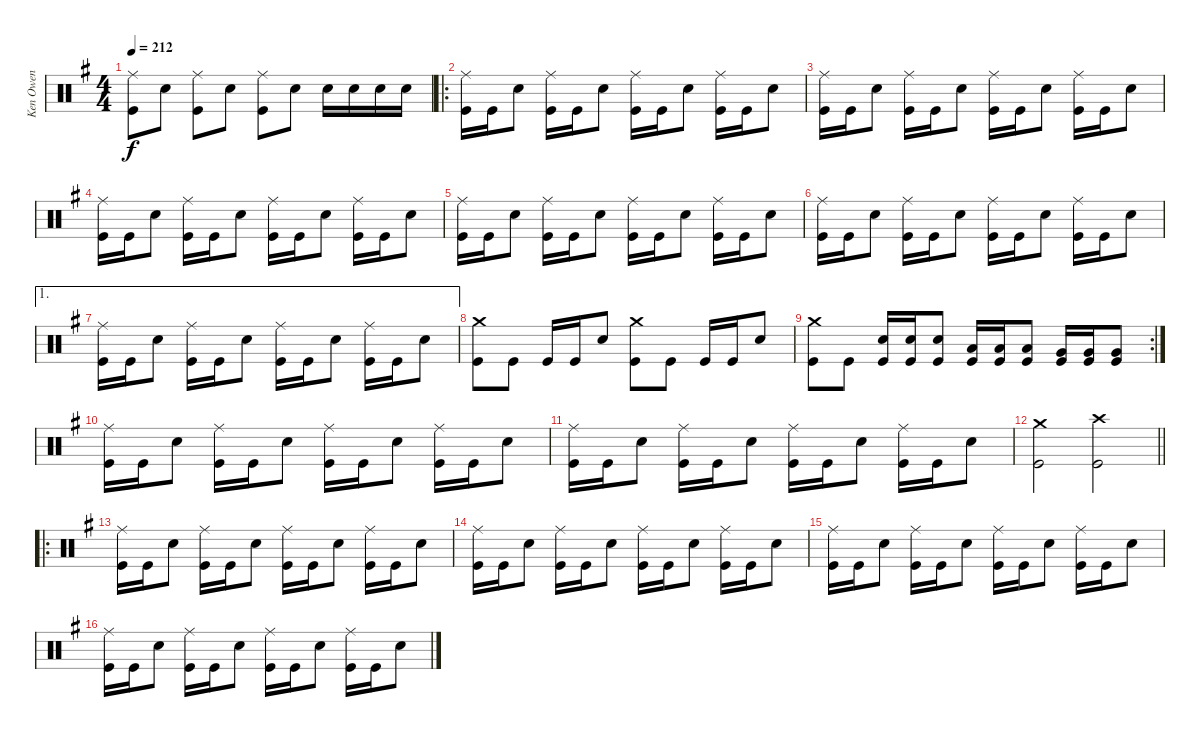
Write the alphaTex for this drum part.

\track ("Ken Owen" "Ken Owen") {instrument percussion}
\staff {score}
\articulation defaults
\ts (4 4)
\tempo 212
\clef neutral
\ks g
("Ride (middle)" "Kick (hit)").8{dy f} "Snare (hit) 2".8 ("Ride (middle)" "Kick (hit)").8 "Snare (hit) 2".8 ("Ride (middle)" "Kick (hit)").8 "Snare (hit) 2".8 "Snare (hit) 2".16 "Snare (hit) 2".16 "Snare (hit) 2".16 "Snare (hit) 2".16 |
\ro
("Ride (middle)" "Kick (hit)").16 "Kick (hit)".16 "Snare (hit) 2".8 ("Ride (middle)" "Kick (hit)").16 "Kick (hit)".16 "Snare (hit) 2".8 ("Ride (middle)" "Kick (hit)").16 "Kick (hit)".16 "Snare (hit) 2".8 ("Ride (middle)" "Kick (hit)").16 "Kick (hit)".16 "Snare (hit) 2".8 |
("Ride (middle)" "Kick (hit)").16 "Kick (hit)".16 "Snare (hit) 2".8 ("Ride (middle)" "Kick (hit)").16 "Kick (hit)".16 "Snare (hit) 2".8 ("Ride (middle)" "Kick (hit)").16 "Kick (hit)".16 "Snare (hit) 2".8 ("Ride (middle)" "Kick (hit)").16 "Kick (hit)".16 "Snare (hit) 2".8 |
("Ride (middle)" "Kick (hit)").16 "Kick (hit)".16 "Snare (hit) 2".8 ("Ride (middle)" "Kick (hit)").16 "Kick (hit)".16 "Snare (hit) 2".8 ("Ride (middle)" "Kick (hit)").16 "Kick (hit)".16 "Snare (hit) 2".8 ("Ride (middle)" "Kick (hit)").16 "Kick (hit)".16 "Snare (hit) 2".8 |
("Ride (middle)" "Kick (hit)").16 "Kick (hit)".16 "Snare (hit) 2".8 ("Ride (middle)" "Kick (hit)").16 "Kick (hit)".16 "Snare (hit) 2".8 ("Ride (middle)" "Kick (hit)").16 "Kick (hit)".16 "Snare (hit) 2".8 ("Ride (middle)" "Kick (hit)").16 "Kick (hit)".16 "Snare (hit) 2".8 |
("Ride (middle)" "Kick (hit)").16 "Kick (hit)".16 "Snare (hit) 2".8 ("Ride (middle)" "Kick (hit)").16 "Kick (hit)".16 "Snare (hit) 2".8 ("Ride (middle)" "Kick (hit)").16 "Kick (hit)".16 "Snare (hit) 2".8 ("Ride (middle)" "Kick (hit)").16 "Kick (hit)".16 "Snare (hit) 2".8 |
\ae 1
("Ride (middle)" "Kick (hit)").16 "Kick (hit)".16 "Snare (hit) 2".8 ("Ride (middle)" "Kick (hit)").16 "Kick (hit)".16 "Snare (hit) 2".8 ("Ride (middle)" "Kick (hit)").16 "Kick (hit)".16 "Snare (hit) 2".8 ("Ride (middle)" "Kick (hit)").16 "Kick (hit)".16 "Snare (hit) 2".8 |
("Crash medium (hit)" "Kick (hit)").8 "Kick (hit)".8 "Kick (hit)".16 "Kick (hit)".16 "Snare (hit) 2".8 ("Crash medium (hit)" "Kick (hit)").8 "Kick (hit)".8 "Kick (hit)".16 "Kick (hit)".16 "Snare (hit) 2".8 |
\rc 2
("Crash medium (hit)" "Kick (hit)").8 "Kick (hit)".8 ("Snare (hit) 2" "Kick (hit)").16 ("Snare (hit) 2" "Kick (hit)").16 ("Snare (hit) 2" "Kick (hit)").8 ("Low Tom (hit)" "Kick (hit)").16 ("Low Tom (hit)" "Kick (hit)").16 ("Low Tom (hit)" "Kick (hit)").8 ("Very Low Tom (hit)" "Kick (hit)").16 ("Very Low Tom (hit)" "Kick (hit)").16 ("Very Low Tom (hit)" "Kick (hit)").8 |
("Ride (middle)" "Kick (hit)").16 "Kick (hit)".16 "Snare (hit) 2".8 ("Ride (middle)" "Kick (hit)").16 "Kick (hit)".16 "Snare (hit) 2".8 ("Ride (middle)" "Kick (hit)").16 "Kick (hit)".16 "Snare (hit) 2".8 ("Ride (middle)" "Kick (hit)").16 "Kick (hit)".16 "Snare (hit) 2".8 |
("Ride (middle)" "Kick (hit)").16 "Kick (hit)".16 "Snare (hit) 2".8 ("Ride (middle)" "Kick (hit)").16 "Kick (hit)".16 "Snare (hit) 2".8 ("Ride (middle)" "Kick (hit)").16 "Kick (hit)".16 "Snare (hit) 2".8 ("Ride (middle)" "Kick (hit)").16 "Kick (hit)".16 "Snare (hit) 2".8 |
\barLineRight lightlight
("Crash medium (hit)" "Kick (hit)").2 ("Crash high (hit)" "Kick (hit)").2 |
\ro
("Ride (middle)" "Kick (hit)").16 "Kick (hit)".16 "Snare (hit) 2".8 ("Ride (middle)" "Kick (hit)").16 "Kick (hit)".16 "Snare (hit) 2".8 ("Ride (middle)" "Kick (hit)").16 "Kick (hit)".16 "Snare (hit) 2".8 ("Ride (middle)" "Kick (hit)").16 "Kick (hit)".16 "Snare (hit) 2".8 |
("Ride (middle)" "Kick (hit)").16 "Kick (hit)".16 "Snare (hit) 2".8 ("Ride (middle)" "Kick (hit)").16 "Kick (hit)".16 "Snare (hit) 2".8 ("Ride (middle)" "Kick (hit)").16 "Kick (hit)".16 "Snare (hit) 2".8 ("Ride (middle)" "Kick (hit)").16 "Kick (hit)".16 "Snare (hit) 2".8 |
("Ride (middle)" "Kick (hit)").16 "Kick (hit)".16 "Snare (hit) 2".8 ("Ride (middle)" "Kick (hit)").16 "Kick (hit)".16 "Snare (hit) 2".8 ("Ride (middle)" "Kick (hit)").16 "Kick (hit)".16 "Snare (hit) 2".8 ("Ride (middle)" "Kick (hit)").16 "Kick (hit)".16 "Snare (hit) 2".8 |
("Ride (middle)" "Kick (hit)").16 "Kick (hit)".16 "Snare (hit) 2".8 ("Ride (middle)" "Kick (hit)").16 "Kick (hit)".16 "Snare (hit) 2".8 ("Ride (middle)" "Kick (hit)").16 "Kick (hit)".16 "Snare (hit) 2".8 ("Ride (middle)" "Kick (hit)").16 "Kick (hit)".16 "Snare (hit) 2".8
